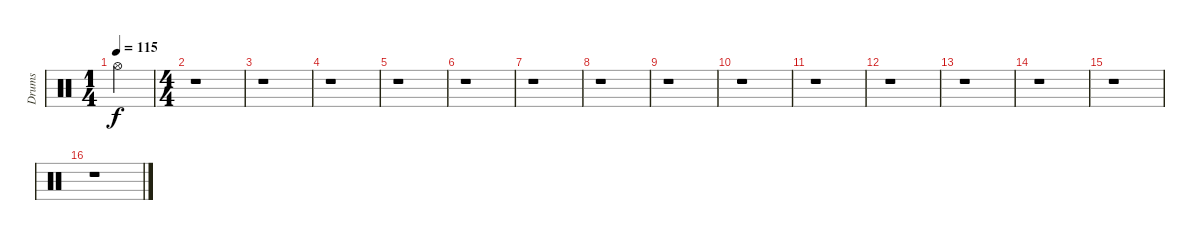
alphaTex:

\track ("Drums" "Drums") {instrument percussion}
\staff {score}
\articulation defaults
\ts (1 4)
\tempo 115
\clef neutral
\ks c "Hi-Hat (open)".4{dy f}
|
\ts (4 4)
r.1 |
r.1 |
r.1 |
r.1 |
r.1 |
r.1 |
r.1 |
r.1 |
r.1 |
r.1 |
r.1 |
r.1 |
r.1 |
r.1 |
r.1
